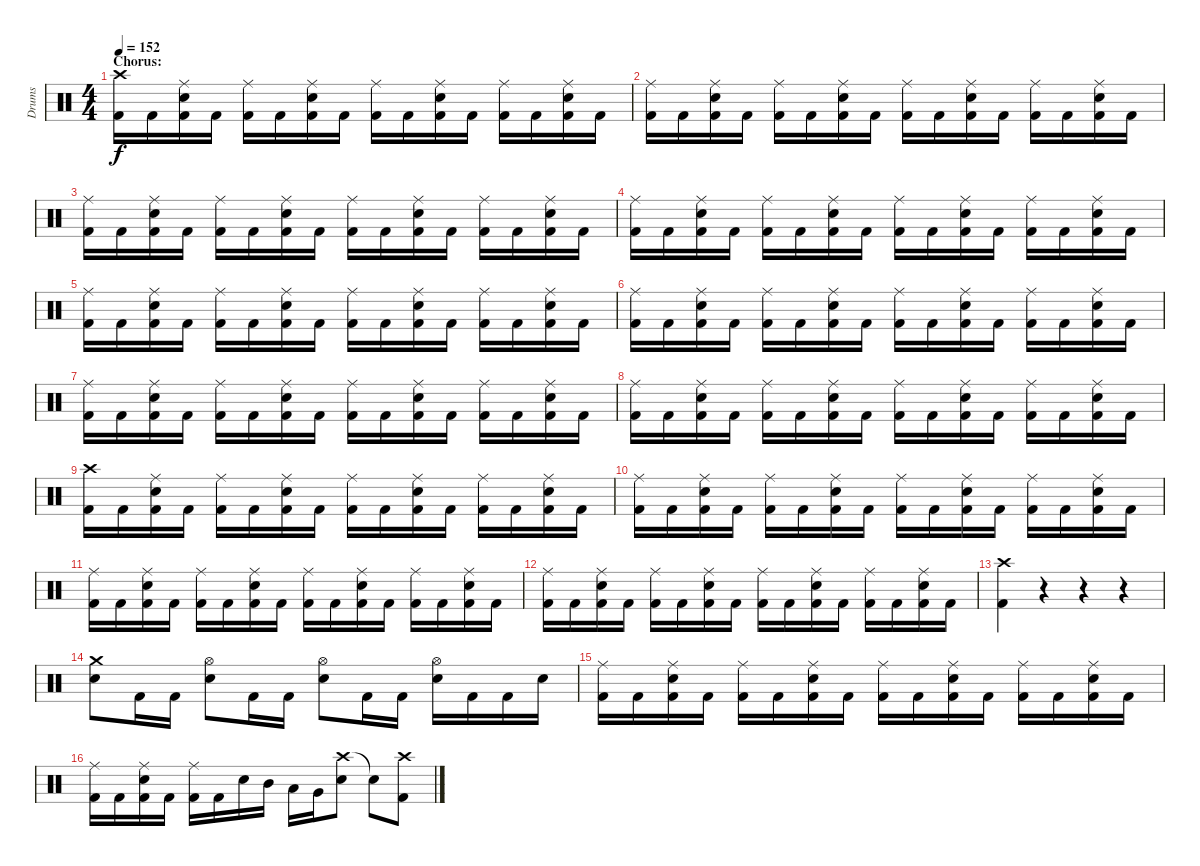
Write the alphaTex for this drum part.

\track ("Drums" "Drums") {instrument percussion}
\staff {score}
\articulation defaults
\ts (4 4)
\section ("" "Chorus:")
\tempo 152
\clef neutral
\ks c
("Crash high (hit)" "Kick (hit) 2").16{dy f} "Kick (hit) 2".16 ("Ride (middle)" "Electric Snare (hit)" "Kick (hit) 2").16 "Kick (hit) 2".16 ("Ride (middle)" "Kick (hit) 2").16 "Kick (hit) 2".16 ("Ride (middle)" "Electric Snare (hit)" "Kick (hit) 2").16 "Kick (hit) 2".16 ("Ride (middle)" "Kick (hit) 2").16 "Kick (hit) 2".16 ("Ride (middle)" "Electric Snare (hit)" "Kick (hit) 2").16 "Kick (hit) 2".16 ("Ride (middle)" "Kick (hit) 2").16 "Kick (hit) 2".16 ("Ride (middle)" "Electric Snare (hit)" "Kick (hit) 2").16 "Kick (hit) 2".16 |
("Ride (middle)" "Kick (hit) 2").16 "Kick (hit) 2".16 ("Ride (middle)" "Electric Snare (hit)" "Kick (hit) 2").16 "Kick (hit) 2".16 ("Ride (middle)" "Kick (hit) 2").16 "Kick (hit) 2".16 ("Ride (middle)" "Electric Snare (hit)" "Kick (hit) 2").16 "Kick (hit) 2".16 ("Ride (middle)" "Kick (hit) 2").16 "Kick (hit) 2".16 ("Ride (middle)" "Electric Snare (hit)" "Kick (hit) 2").16 "Kick (hit) 2".16 ("Ride (middle)" "Kick (hit) 2").16 "Kick (hit) 2".16 ("Ride (middle)" "Electric Snare (hit)" "Kick (hit) 2").16 "Kick (hit) 2".16 |
("Ride (middle)" "Kick (hit) 2").16 "Kick (hit) 2".16 ("Ride (middle)" "Electric Snare (hit)" "Kick (hit) 2").16 "Kick (hit) 2".16 ("Ride (middle)" "Kick (hit) 2").16 "Kick (hit) 2".16 ("Ride (middle)" "Electric Snare (hit)" "Kick (hit) 2").16 "Kick (hit) 2".16 ("Ride (middle)" "Kick (hit) 2").16 "Kick (hit) 2".16 ("Ride (middle)" "Electric Snare (hit)" "Kick (hit) 2").16 "Kick (hit) 2".16 ("Ride (middle)" "Kick (hit) 2").16 "Kick (hit) 2".16 ("Ride (middle)" "Electric Snare (hit)" "Kick (hit) 2").16 "Kick (hit) 2".16 |
("Ride (middle)" "Kick (hit) 2").16 "Kick (hit) 2".16 ("Ride (middle)" "Electric Snare (hit)" "Kick (hit) 2").16 "Kick (hit) 2".16 ("Ride (middle)" "Kick (hit) 2").16 "Kick (hit) 2".16 ("Ride (middle)" "Electric Snare (hit)" "Kick (hit) 2").16 "Kick (hit) 2".16 ("Ride (middle)" "Kick (hit) 2").16 "Kick (hit) 2".16 ("Ride (middle)" "Electric Snare (hit)" "Kick (hit) 2").16 "Kick (hit) 2".16 ("Ride (middle)" "Kick (hit) 2").16 "Kick (hit) 2".16 ("Ride (middle)" "Electric Snare (hit)" "Kick (hit) 2").16 "Kick (hit) 2".16 |
("Ride (middle)" "Kick (hit) 2").16 "Kick (hit) 2".16 ("Ride (middle)" "Electric Snare (hit)" "Kick (hit) 2").16 "Kick (hit) 2".16 ("Ride (middle)" "Kick (hit) 2").16 "Kick (hit) 2".16 ("Ride (middle)" "Electric Snare (hit)" "Kick (hit) 2").16 "Kick (hit) 2".16 ("Ride (middle)" "Kick (hit) 2").16 "Kick (hit) 2".16 ("Ride (middle)" "Electric Snare (hit)" "Kick (hit) 2").16 "Kick (hit) 2".16 ("Ride (middle)" "Kick (hit) 2").16 "Kick (hit) 2".16 ("Ride (middle)" "Electric Snare (hit)" "Kick (hit) 2").16 "Kick (hit) 2".16 |
("Ride (middle)" "Kick (hit) 2").16 "Kick (hit) 2".16 ("Ride (middle)" "Electric Snare (hit)" "Kick (hit) 2").16 "Kick (hit) 2".16 ("Ride (middle)" "Kick (hit) 2").16 "Kick (hit) 2".16 ("Ride (middle)" "Electric Snare (hit)" "Kick (hit) 2").16 "Kick (hit) 2".16 ("Ride (middle)" "Kick (hit) 2").16 "Kick (hit) 2".16 ("Ride (middle)" "Electric Snare (hit)" "Kick (hit) 2").16 "Kick (hit) 2".16 ("Ride (middle)" "Kick (hit) 2").16 "Kick (hit) 2".16 ("Ride (middle)" "Electric Snare (hit)" "Kick (hit) 2").16 "Kick (hit) 2".16 |
("Ride (middle)" "Kick (hit) 2").16 "Kick (hit) 2".16 ("Ride (middle)" "Electric Snare (hit)" "Kick (hit) 2").16 "Kick (hit) 2".16 ("Ride (middle)" "Kick (hit) 2").16 "Kick (hit) 2".16 ("Ride (middle)" "Electric Snare (hit)" "Kick (hit) 2").16 "Kick (hit) 2".16 ("Ride (middle)" "Kick (hit) 2").16 "Kick (hit) 2".16 ("Ride (middle)" "Electric Snare (hit)" "Kick (hit) 2").16 "Kick (hit) 2".16 ("Ride (middle)" "Kick (hit) 2").16 "Kick (hit) 2".16 ("Ride (middle)" "Electric Snare (hit)" "Kick (hit) 2").16 "Kick (hit) 2".16 |
("Ride (middle)" "Kick (hit) 2").16 "Kick (hit) 2".16 ("Ride (middle)" "Electric Snare (hit)" "Kick (hit) 2").16 "Kick (hit) 2".16 ("Ride (middle)" "Kick (hit) 2").16 "Kick (hit) 2".16 ("Ride (middle)" "Electric Snare (hit)" "Kick (hit) 2").16 "Kick (hit) 2".16 ("Ride (middle)" "Kick (hit) 2").16 "Kick (hit) 2".16 ("Ride (middle)" "Electric Snare (hit)" "Kick (hit) 2").16 "Kick (hit) 2".16 ("Ride (middle)" "Kick (hit) 2").16 "Kick (hit) 2".16 ("Ride (middle)" "Electric Snare (hit)" "Kick (hit) 2").16 "Kick (hit) 2".16 |
("Crash high (hit)" "Kick (hit) 2").16 "Kick (hit) 2".16 ("Ride (middle)" "Electric Snare (hit)" "Kick (hit) 2").16 "Kick (hit) 2".16 ("Ride (middle)" "Kick (hit) 2").16 "Kick (hit) 2".16 ("Ride (middle)" "Electric Snare (hit)" "Kick (hit) 2").16 "Kick (hit) 2".16 ("Ride (middle)" "Kick (hit) 2").16 "Kick (hit) 2".16 ("Ride (middle)" "Electric Snare (hit)" "Kick (hit) 2").16 "Kick (hit) 2".16 ("Ride (middle)" "Kick (hit) 2").16 "Kick (hit) 2".16 ("Ride (middle)" "Electric Snare (hit)" "Kick (hit) 2").16 "Kick (hit) 2".16 |
("Ride (middle)" "Kick (hit) 2").16 "Kick (hit) 2".16 ("Ride (middle)" "Electric Snare (hit)" "Kick (hit) 2").16 "Kick (hit) 2".16 ("Ride (middle)" "Kick (hit) 2").16 "Kick (hit) 2".16 ("Ride (middle)" "Electric Snare (hit)" "Kick (hit) 2").16 "Kick (hit) 2".16 ("Ride (middle)" "Kick (hit) 2").16 "Kick (hit) 2".16 ("Ride (middle)" "Electric Snare (hit)" "Kick (hit) 2").16 "Kick (hit) 2".16 ("Ride (middle)" "Kick (hit) 2").16 "Kick (hit) 2".16 ("Ride (middle)" "Electric Snare (hit)" "Kick (hit) 2").16 "Kick (hit) 2".16 |
("Ride (middle)" "Kick (hit) 2").16 "Kick (hit) 2".16 ("Ride (middle)" "Electric Snare (hit)" "Kick (hit) 2").16 "Kick (hit) 2".16 ("Ride (middle)" "Kick (hit) 2").16 "Kick (hit) 2".16 ("Ride (middle)" "Electric Snare (hit)" "Kick (hit) 2").16 "Kick (hit) 2".16 ("Ride (middle)" "Kick (hit) 2").16 "Kick (hit) 2".16 ("Ride (middle)" "Electric Snare (hit)" "Kick (hit) 2").16 "Kick (hit) 2".16 ("Ride (middle)" "Kick (hit) 2").16 "Kick (hit) 2".16 ("Ride (middle)" "Electric Snare (hit)" "Kick (hit) 2").16 "Kick (hit) 2".16 |
("Ride (middle)" "Kick (hit) 2").16 "Kick (hit) 2".16 ("Ride (middle)" "Electric Snare (hit)" "Kick (hit) 2").16 "Kick (hit) 2".16 ("Ride (middle)" "Kick (hit) 2").16 "Kick (hit) 2".16 ("Ride (middle)" "Electric Snare (hit)" "Kick (hit) 2").16 "Kick (hit) 2".16 ("Ride (middle)" "Kick (hit) 2").16 "Kick (hit) 2".16 ("Ride (middle)" "Electric Snare (hit)" "Kick (hit) 2").16 "Kick (hit) 2".16 ("Ride (middle)" "Kick (hit) 2").16 "Kick (hit) 2".16 ("Ride (middle)" "Electric Snare (hit)" "Kick (hit) 2").16 "Kick (hit) 2".16 |
("Crash high (hit)" "Kick (hit) 2").4 r.4 r.4 r.4 |
("Crash medium (hit)" "Electric Snare (hit)").8 "Kick (hit) 2".16 "Kick (hit) 2".16 ("Hi-Hat (open)" "Electric Snare (hit)").8 "Kick (hit) 2".16 "Kick (hit) 2".16 ("Hi-Hat (open)" "Electric Snare (hit)").8 "Kick (hit) 2".16 "Kick (hit) 2".16 ("Hi-Hat (open)" "Electric Snare (hit)").16 "Kick (hit) 2".16 "Kick (hit) 2".16 "Electric Snare (hit)".16 |
("Ride (middle)" "Kick (hit) 2").16 "Kick (hit) 2".16 ("Ride (middle)" "Electric Snare (hit)" "Kick (hit) 2").16 "Kick (hit) 2".16 ("Ride (middle)" "Kick (hit) 2").16 "Kick (hit) 2".16 ("Ride (middle)" "Electric Snare (hit)" "Kick (hit) 2").16 "Kick (hit) 2".16 ("Ride (middle)" "Kick (hit) 2").16 "Kick (hit) 2".16 ("Ride (middle)" "Electric Snare (hit)" "Kick (hit) 2").16 "Kick (hit) 2".16 ("Ride (middle)" "Kick (hit) 2").16 "Kick (hit) 2".16 ("Ride (middle)" "Electric Snare (hit)" "Kick (hit) 2").16 "Kick (hit) 2".16 |
("Ride (middle)" "Kick (hit) 2").16 "Kick (hit) 2".16 ("Ride (middle)" "Electric Snare (hit)" "Kick (hit) 2").16 "Kick (hit) 2".16 ("Ride (middle)" "Kick (hit) 2").16 "Kick (hit) 2".16 "Electric Snare (hit)".16 "Mid Tom (hit)".16 "Low Tom (hit)".16 "Very Low Tom (hit)".16 ("Crash high (hit)" "Electric Snare (hit)").8 "Electric Snare (hit)"{t}.8 ("Crash high (hit)" "Kick (hit) 2").8
